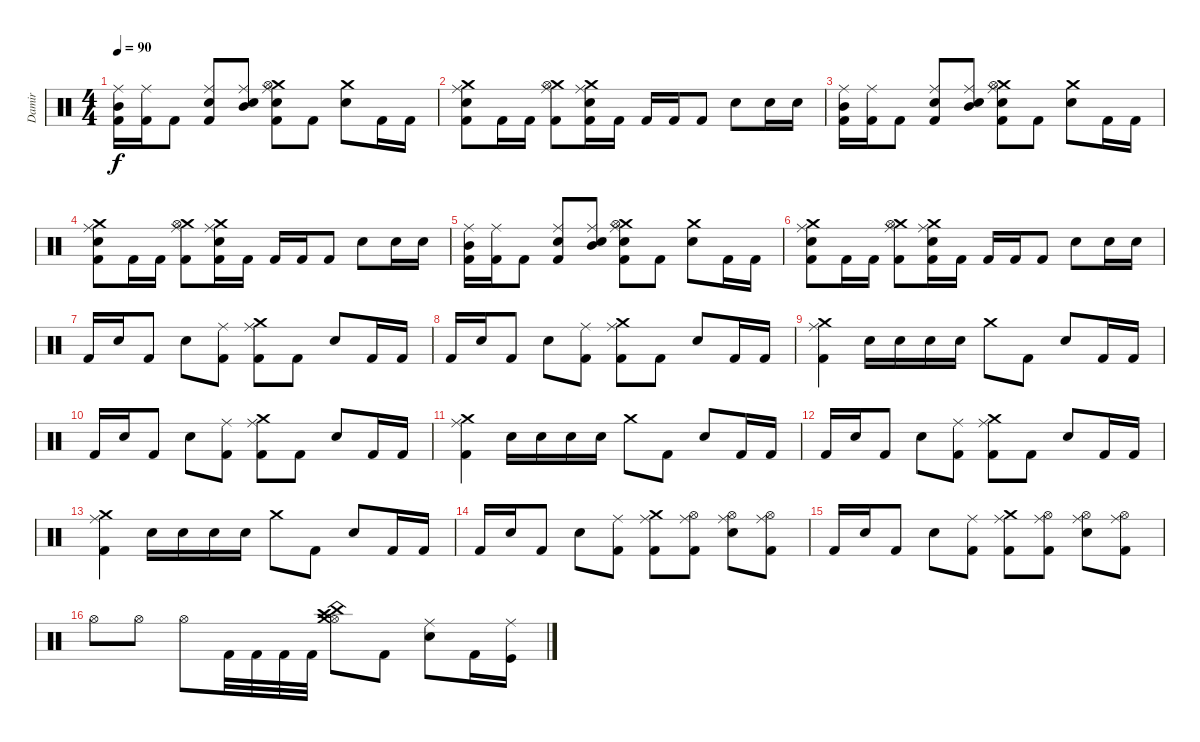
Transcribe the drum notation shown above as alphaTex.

\track ("Damir" "Damir") {instrument percussion}
\staff {score}
\articulation defaults
\ts (4 4)
\tempo 90
\clef neutral
\ks c
("Mid Tom (hit)" "Kick (hit) 2" "Ride (middle)").16{dy f} ("Kick (hit) 2" "Ride (middle)").16 "Kick (hit) 2".8 ("Kick (hit) 2" "Ride (middle)" "Snare (hit) 2").8 ("Snare (hit) 2" "Ride (middle)" "Mid Tom (hit)").8 ("Crash medium (hit)" "Snare (hit) 2" "Ride (middle)" "Kick (hit) 2" "Hi-Hat (open)").8 "Kick (hit) 2".8 ("Snare (hit) 2" "Crash medium (hit)").8 "Kick (hit) 2".16 "Kick (hit) 2".16 |
("Snare (hit) 2" "Crash medium (hit)" "Kick (hit) 2" "Ride (middle)").8 "Kick (hit) 2".16 "Kick (hit) 2".16 ("Kick (hit) 2" "Crash medium (hit)" "Ride (middle)" "Hi-Hat (open)").8 ("Crash medium (hit)" "Kick (hit) 2" "Ride (middle)" "Snare (hit) 2").16 "Kick (hit) 2".16 "Kick (hit) 2".16 "Kick (hit) 2".16 "Kick (hit) 2".8 "Snare (hit) 2".8 "Snare (hit) 2".16 "Snare (hit) 2".16 |
("Mid Tom (hit)" "Kick (hit) 2" "Ride (middle)").16 ("Kick (hit) 2" "Ride (middle)").16 "Kick (hit) 2".8 ("Kick (hit) 2" "Ride (middle)" "Snare (hit) 2").8 ("Snare (hit) 2" "Ride (middle)" "Mid Tom (hit)").8 ("Crash medium (hit)" "Snare (hit) 2" "Ride (middle)" "Kick (hit) 2" "Hi-Hat (open)").8 "Kick (hit) 2".8 ("Snare (hit) 2" "Crash medium (hit)").8 "Kick (hit) 2".16 "Kick (hit) 2".16 |
("Snare (hit) 2" "Crash medium (hit)" "Kick (hit) 2" "Ride (middle)").8 "Kick (hit) 2".16 "Kick (hit) 2".16 ("Kick (hit) 2" "Crash medium (hit)" "Ride (middle)" "Hi-Hat (open)").8 ("Crash medium (hit)" "Kick (hit) 2" "Ride (middle)" "Snare (hit) 2").16 "Kick (hit) 2".16 "Kick (hit) 2".16 "Kick (hit) 2".16 "Kick (hit) 2".8 "Snare (hit) 2".8 "Snare (hit) 2".16 "Snare (hit) 2".16 |
("Mid Tom (hit)" "Kick (hit) 2" "Ride (middle)").16 ("Kick (hit) 2" "Ride (middle)").16 "Kick (hit) 2".8 ("Kick (hit) 2" "Ride (middle)" "Snare (hit) 2").8 ("Snare (hit) 2" "Ride (middle)" "Mid Tom (hit)").8 ("Crash medium (hit)" "Snare (hit) 2" "Ride (middle)" "Kick (hit) 2" "Hi-Hat (open)").8 "Kick (hit) 2".8 ("Snare (hit) 2" "Crash medium (hit)").8 "Kick (hit) 2".16 "Kick (hit) 2".16 |
("Snare (hit) 2" "Crash medium (hit)" "Kick (hit) 2" "Ride (middle)").8 "Kick (hit) 2".16 "Kick (hit) 2".16 ("Kick (hit) 2" "Crash medium (hit)" "Ride (middle)" "Hi-Hat (open)").8 ("Crash medium (hit)" "Kick (hit) 2" "Ride (middle)" "Snare (hit) 2").16 "Kick (hit) 2".16 "Kick (hit) 2".16 "Kick (hit) 2".16 "Kick (hit) 2".8 "Snare (hit) 2".8 "Snare (hit) 2".16 "Snare (hit) 2".16 |
"Kick (hit) 2".16 "Snare (hit) 2".16 "Kick (hit) 2".8 "Snare (hit) 2".8 ("Kick (hit) 2" "Ride (middle)").8 ("Kick (hit) 2" "Ride (middle)" "Crash medium (hit)").8 "Kick (hit) 2".8 "Snare (hit) 2".8 "Kick (hit) 2".16 "Kick (hit) 2".16 |
"Kick (hit) 2".16 "Snare (hit) 2".16 "Kick (hit) 2".8 "Snare (hit) 2".8 ("Kick (hit) 2" "Ride (middle)").8 ("Kick (hit) 2" "Ride (middle)" "Crash medium (hit)").8 "Kick (hit) 2".8 "Snare (hit) 2".8 "Kick (hit) 2".16 "Kick (hit) 2".16 |
("Kick (hit) 2" "Ride (middle)" "Crash medium (hit)").4 "Snare (hit) 2".16 "Snare (hit) 2".16 "Snare (hit) 2".16 "Snare (hit) 2".16 "Crash medium (hit)".8 "Kick (hit) 2".8 "Snare (hit) 2".8 "Kick (hit) 2".16 "Kick (hit) 2".16 |
"Kick (hit) 2".16 "Snare (hit) 2".16 "Kick (hit) 2".8 "Snare (hit) 2".8 ("Kick (hit) 2" "Ride (middle)").8 ("Kick (hit) 2" "Ride (middle)" "Crash medium (hit)").8 "Kick (hit) 2".8 "Snare (hit) 2".8 "Kick (hit) 2".16 "Kick (hit) 2".16 |
("Kick (hit) 2" "Ride (middle)" "Crash medium (hit)").4 "Snare (hit) 2".16 "Snare (hit) 2".16 "Snare (hit) 2".16 "Snare (hit) 2".16 "Crash medium (hit)".8 "Kick (hit) 2".8 "Snare (hit) 2".8 "Kick (hit) 2".16 "Kick (hit) 2".16 |
"Kick (hit) 2".16 "Snare (hit) 2".16 "Kick (hit) 2".8 "Snare (hit) 2".8 ("Kick (hit) 2" "Ride (middle)").8 ("Kick (hit) 2" "Ride (middle)" "Crash medium (hit)").8 "Kick (hit) 2".8 "Snare (hit) 2".8 "Kick (hit) 2".16 "Kick (hit) 2".16 |
("Kick (hit) 2" "Ride (middle)" "Crash medium (hit)").4 "Snare (hit) 2".16 "Snare (hit) 2".16 "Snare (hit) 2".16 "Snare (hit) 2".16 "Crash medium (hit)".8 "Kick (hit) 2".8 "Snare (hit) 2".8 "Kick (hit) 2".16 "Kick (hit) 2".16 |
"Kick (hit) 2".16 "Snare (hit) 2".16 "Kick (hit) 2".8 "Snare (hit) 2".8 ("Kick (hit) 2" "Ride (middle)").8 ("Kick (hit) 2" "Ride (middle)" "Crash medium (hit)").8 ("Hi-Hat (open)" "Kick (hit) 2" "Ride (middle)").8 ("Hi-Hat (open)" "Snare (hit) 2" "Ride (middle)").8 ("Hi-Hat (open)" "Kick (hit) 2" "Ride (middle)").8 |
"Kick (hit) 2".16 "Snare (hit) 2".16 "Kick (hit) 2".8 "Snare (hit) 2".8 ("Kick (hit) 2" "Ride (middle)").8 ("Kick (hit) 2" "Ride (middle)" "Crash medium (hit)").8 ("Hi-Hat (open)" "Kick (hit) 2" "Ride (middle)").8 ("Hi-Hat (open)" "Snare (hit) 2" "Ride (middle)").8 ("Hi-Hat (open)" "Kick (hit) 2" "Ride (middle)").8 |
"Hi-Hat (open)".8 "Hi-Hat (open)".8 "Hi-Hat (open)".8 "Kick (hit) 2".32 "Kick (hit) 2".32 "Kick (hit) 2".32 "Kick (hit) 2".32 ("Hi-Hat (open)" "Crash high (hit)" "Crash medium (hit)" "China (hit)").8 "Kick (hit) 2".8 ("Snare (hit) 2" "Ride (middle)").8 "Kick (hit) 2".16 ("Kick (hit)" "Ride (middle)").16
